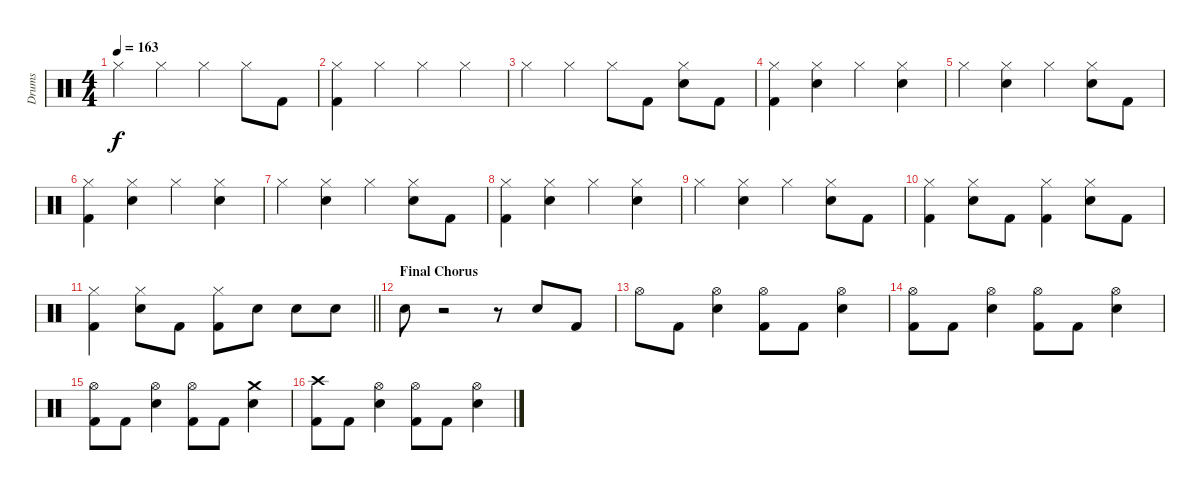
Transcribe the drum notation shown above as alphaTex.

\track ("Drums" "Drums") {instrument percussion}
\staff {score}
\articulation defaults
\ts (4 4)
\tempo 163
\clef neutral
\ks c "Hi-Hat (closed)".4{dy f} "Hi-Hat (closed)".4 "Hi-Hat (closed)".4 "Hi-Hat (closed)".8 "Kick (hit) 2".8
|
("Hi-Hat (closed)" "Kick (hit) 2").4 "Hi-Hat (closed)".4 "Hi-Hat (closed)".4 "Hi-Hat (closed)".4 |
"Hi-Hat (closed)".4 "Hi-Hat (closed)".4 "Hi-Hat (closed)".8 "Kick (hit) 2".8 ("Hi-Hat (closed)" "Snare (hit) 2").8 "Kick (hit) 2".8 |
("Hi-Hat (closed)" "Kick (hit) 2").4 ("Hi-Hat (closed)" "Snare (hit) 2").4 "Hi-Hat (closed)".4 ("Hi-Hat (closed)" "Snare (hit) 2").4 |
"Hi-Hat (closed)".4 ("Hi-Hat (closed)" "Snare (hit) 2").4 "Hi-Hat (closed)".4 ("Hi-Hat (closed)" "Snare (hit) 2").8 "Kick (hit) 2".8 |
("Hi-Hat (closed)" "Kick (hit) 2").4 ("Hi-Hat (closed)" "Snare (hit) 2").4 "Hi-Hat (closed)".4 ("Hi-Hat (closed)" "Snare (hit) 2").4 |
"Hi-Hat (closed)".4 ("Hi-Hat (closed)" "Snare (hit) 2").4 "Hi-Hat (closed)".4 ("Hi-Hat (closed)" "Snare (hit) 2").8 "Kick (hit) 2".8 |
("Hi-Hat (closed)" "Kick (hit) 2").4 ("Hi-Hat (closed)" "Snare (hit) 2").4 "Hi-Hat (closed)".4 ("Hi-Hat (closed)" "Snare (hit) 2").4 |
"Hi-Hat (closed)".4 ("Hi-Hat (closed)" "Snare (hit) 2").4 "Hi-Hat (closed)".4 ("Hi-Hat (closed)" "Snare (hit) 2").8 "Kick (hit) 2".8 |
("Hi-Hat (closed)" "Kick (hit) 2").4 ("Hi-Hat (closed)" "Snare (hit) 2").8 "Kick (hit) 2".8 ("Hi-Hat (closed)" "Kick (hit) 2").4 ("Hi-Hat (closed)" "Snare (hit) 2").8 "Kick (hit) 2".8 |
\barLineRight lightlight
("Hi-Hat (closed)" "Kick (hit) 2").4 ("Hi-Hat (closed)" "Snare (hit) 2").8 "Kick (hit) 2".8 ("Hi-Hat (closed)" "Kick (hit) 2").8 "Snare (hit) 2".8 "Snare (hit) 2".8 "Snare (hit) 2".8 |
\section ("" "Final Chorus")
"Snare (hit) 2".8 r.2 r.8 "Snare (hit) 2".8 "Kick (hit) 2".8 |
"Hi-Hat (open)".8 "Kick (hit) 2".8 ("Hi-Hat (open)" "Snare (hit) 2").4 ("Hi-Hat (open)" "Kick (hit) 2").8 "Kick (hit) 2".8 ("Hi-Hat (open)" "Snare (hit) 2").4 |
("Hi-Hat (open)" "Kick (hit) 2").8 "Kick (hit) 2".8 ("Hi-Hat (open)" "Snare (hit) 2").4 ("Hi-Hat (open)" "Kick (hit) 2").8 "Kick (hit) 2".8 ("Hi-Hat (open)" "Snare (hit) 2").4 |
("Hi-Hat (open)" "Kick (hit) 2").8 "Kick (hit) 2".8 ("Hi-Hat (open)" "Snare (hit) 2").4 ("Hi-Hat (open)" "Kick (hit) 2").8 "Kick (hit) 2".8 ("Crash medium (hit)" "Snare (hit) 2").4 |
("Crash high (hit)" "Kick (hit) 2").8 "Kick (hit) 2".8 ("Hi-Hat (open)" "Snare (hit) 2").4 ("Hi-Hat (open)" "Kick (hit) 2").8 "Kick (hit) 2".8 ("Hi-Hat (open)" "Snare (hit) 2").4
